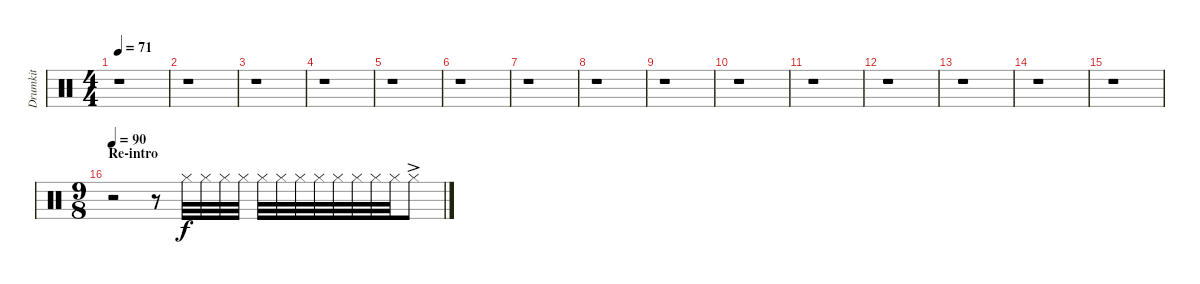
\track ("Drumkit" "Drumkit") {instrument percussion}
\staff {score}
\articulation defaults
\ts (4 4)
\tempo 71
\clef neutral
\ks c
r.1{dy f} |
r.1 |
r.1 |
r.1 |
r.1 |
r.1 |
r.1 |
r.1 |
r.1 |
r.1 |
r.1 |
r.1 |
r.1 |
r.1 |
r.1 |
\ts (9 8)
\section ("" "Re-intro")
\tempo 90
r.2 r.8 "Hi-Hat (closed)".32 "Hi-Hat (closed)".32 "Hi-Hat (closed)".32 "Hi-Hat (closed)".32 "Hi-Hat (closed)".32 "Hi-Hat (closed)".32 "Hi-Hat (closed)".32 "Hi-Hat (closed)".32 "Hi-Hat (closed)".32 "Hi-Hat (closed)".32 "Hi-Hat (closed)".32 "Hi-Hat (closed)".32 "Hi-Hat (closed)"{ac}.8
